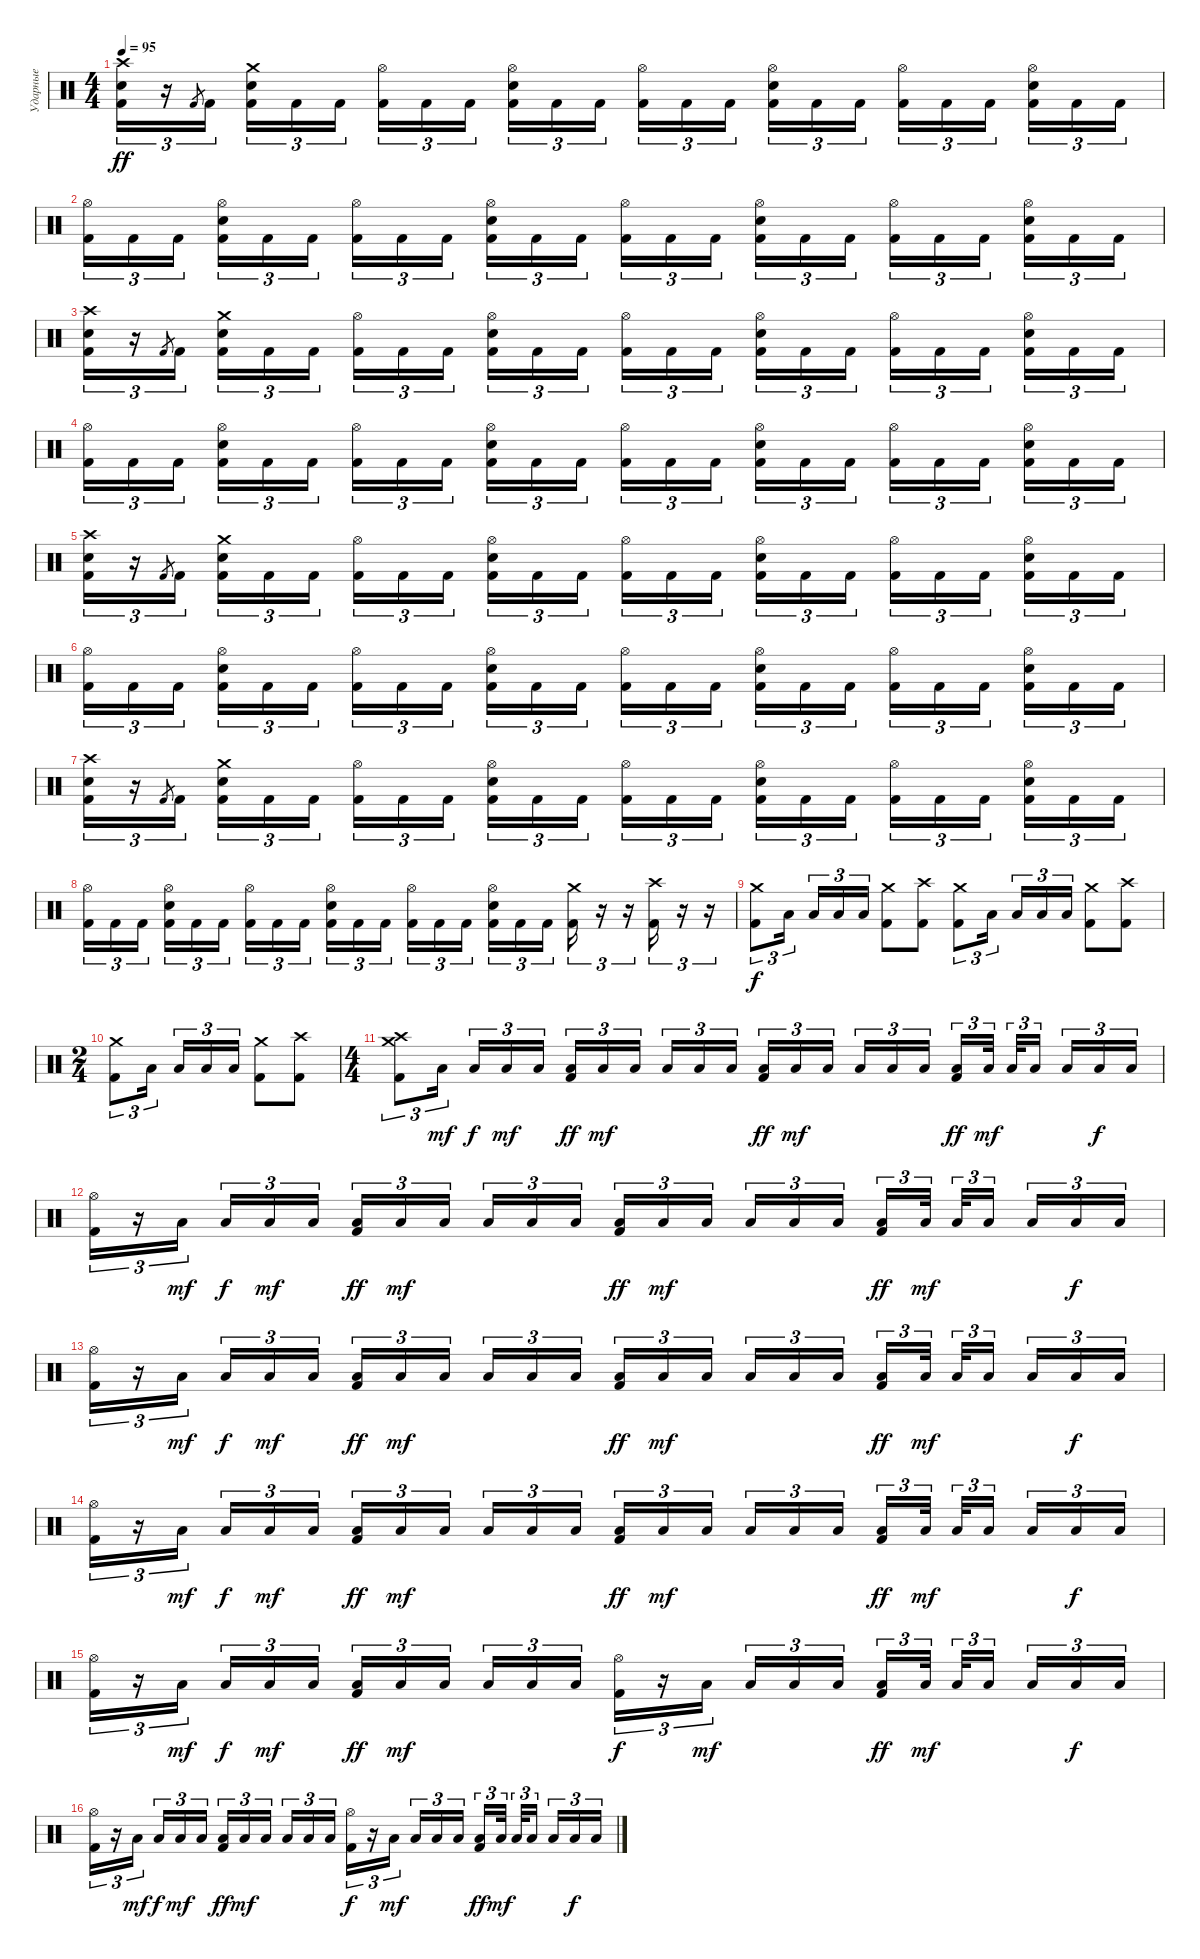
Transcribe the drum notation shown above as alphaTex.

\track ("Ударные" "Ударные") {instrument percussion}
\staff
\articulation defaults
\ts (4 4)
\tempo 95
\clef neutral
\ks c
("Crash high (hit)" "Electric Snare (hit)" "Kick (hit) 2").16{tu (3 2) dy ff} r.16{tu (3 2)} "Kick (hit) 2".8{gr} "Kick (hit) 2".16{tu (3 2) beam splitsecondary} ("Crash medium (hit)" "Electric Snare (hit)" "Kick (hit) 2").16{tu (3 2)} "Kick (hit) 2".16{tu (3 2)} "Kick (hit) 2".16{tu (3 2)} ("Hi-Hat (open)" "Kick (hit) 2").16{tu (3 2)} "Kick (hit) 2".16{tu (3 2)} "Kick (hit) 2".16{tu (3 2) beam splitsecondary} ("Hi-Hat (open)" "Electric Snare (hit)" "Kick (hit) 2").16{tu (3 2)} "Kick (hit) 2".16{tu (3 2)} "Kick (hit) 2".16{tu (3 2)} ("Hi-Hat (open)" "Kick (hit) 2").16{tu (3 2)} "Kick (hit) 2".16{tu (3 2)} "Kick (hit) 2".16{tu (3 2) beam splitsecondary} ("Hi-Hat (open)" "Electric Snare (hit)" "Kick (hit) 2").16{tu (3 2)} "Kick (hit) 2".16{tu (3 2)} "Kick (hit) 2".16{tu (3 2)} ("Hi-Hat (open)" "Kick (hit) 2").16{tu (3 2)} "Kick (hit) 2".16{tu (3 2)} "Kick (hit) 2".16{tu (3 2) beam splitsecondary} ("Hi-Hat (open)" "Electric Snare (hit)" "Kick (hit) 2").16{tu (3 2)} "Kick (hit) 2".16{tu (3 2)} "Kick (hit) 2".16{tu (3 2)} |
("Hi-Hat (open)" "Kick (hit) 2").16{tu (3 2)} "Kick (hit) 2".16{tu (3 2)} "Kick (hit) 2".16{tu (3 2) beam splitsecondary} ("Hi-Hat (open)" "Electric Snare (hit)" "Kick (hit) 2").16{tu (3 2)} "Kick (hit) 2".16{tu (3 2)} "Kick (hit) 2".16{tu (3 2)} ("Hi-Hat (open)" "Kick (hit) 2").16{tu (3 2)} "Kick (hit) 2".16{tu (3 2)} "Kick (hit) 2".16{tu (3 2) beam splitsecondary} ("Hi-Hat (open)" "Electric Snare (hit)" "Kick (hit) 2").16{tu (3 2)} "Kick (hit) 2".16{tu (3 2)} "Kick (hit) 2".16{tu (3 2)} ("Hi-Hat (open)" "Kick (hit) 2").16{tu (3 2)} "Kick (hit) 2".16{tu (3 2)} "Kick (hit) 2".16{tu (3 2) beam splitsecondary} ("Hi-Hat (open)" "Electric Snare (hit)" "Kick (hit) 2").16{tu (3 2)} "Kick (hit) 2".16{tu (3 2)} "Kick (hit) 2".16{tu (3 2)} ("Hi-Hat (open)" "Kick (hit) 2").16{tu (3 2)} "Kick (hit) 2".16{tu (3 2)} "Kick (hit) 2".16{tu (3 2) beam splitsecondary} ("Hi-Hat (open)" "Electric Snare (hit)" "Kick (hit) 2").16{tu (3 2)} "Kick (hit) 2".16{tu (3 2)} "Kick (hit) 2".16{tu (3 2)} |
("Crash high (hit)" "Electric Snare (hit)" "Kick (hit) 2").16{tu (3 2)} r.16{tu (3 2)} "Kick (hit) 2".8{gr} "Kick (hit) 2".16{tu (3 2) beam splitsecondary} ("Crash medium (hit)" "Electric Snare (hit)" "Kick (hit) 2").16{tu (3 2)} "Kick (hit) 2".16{tu (3 2)} "Kick (hit) 2".16{tu (3 2)} ("Hi-Hat (open)" "Kick (hit) 2").16{tu (3 2)} "Kick (hit) 2".16{tu (3 2)} "Kick (hit) 2".16{tu (3 2) beam splitsecondary} ("Hi-Hat (open)" "Electric Snare (hit)" "Kick (hit) 2").16{tu (3 2)} "Kick (hit) 2".16{tu (3 2)} "Kick (hit) 2".16{tu (3 2)} ("Hi-Hat (open)" "Kick (hit) 2").16{tu (3 2)} "Kick (hit) 2".16{tu (3 2)} "Kick (hit) 2".16{tu (3 2) beam splitsecondary} ("Hi-Hat (open)" "Electric Snare (hit)" "Kick (hit) 2").16{tu (3 2)} "Kick (hit) 2".16{tu (3 2)} "Kick (hit) 2".16{tu (3 2)} ("Hi-Hat (open)" "Kick (hit) 2").16{tu (3 2)} "Kick (hit) 2".16{tu (3 2)} "Kick (hit) 2".16{tu (3 2) beam splitsecondary} ("Hi-Hat (open)" "Electric Snare (hit)" "Kick (hit) 2").16{tu (3 2)} "Kick (hit) 2".16{tu (3 2)} "Kick (hit) 2".16{tu (3 2)} |
("Hi-Hat (open)" "Kick (hit) 2").16{tu (3 2)} "Kick (hit) 2".16{tu (3 2)} "Kick (hit) 2".16{tu (3 2) beam splitsecondary} ("Hi-Hat (open)" "Electric Snare (hit)" "Kick (hit) 2").16{tu (3 2)} "Kick (hit) 2".16{tu (3 2)} "Kick (hit) 2".16{tu (3 2)} ("Hi-Hat (open)" "Kick (hit) 2").16{tu (3 2)} "Kick (hit) 2".16{tu (3 2)} "Kick (hit) 2".16{tu (3 2) beam splitsecondary} ("Hi-Hat (open)" "Electric Snare (hit)" "Kick (hit) 2").16{tu (3 2)} "Kick (hit) 2".16{tu (3 2)} "Kick (hit) 2".16{tu (3 2)} ("Hi-Hat (open)" "Kick (hit) 2").16{tu (3 2)} "Kick (hit) 2".16{tu (3 2)} "Kick (hit) 2".16{tu (3 2) beam splitsecondary} ("Hi-Hat (open)" "Electric Snare (hit)" "Kick (hit) 2").16{tu (3 2)} "Kick (hit) 2".16{tu (3 2)} "Kick (hit) 2".16{tu (3 2)} ("Hi-Hat (open)" "Kick (hit) 2").16{tu (3 2)} "Kick (hit) 2".16{tu (3 2)} "Kick (hit) 2".16{tu (3 2) beam splitsecondary} ("Hi-Hat (open)" "Electric Snare (hit)" "Kick (hit) 2").16{tu (3 2)} "Kick (hit) 2".16{tu (3 2)} "Kick (hit) 2".16{tu (3 2)} |
("Crash high (hit)" "Electric Snare (hit)" "Kick (hit) 2").16{tu (3 2)} r.16{tu (3 2)} "Kick (hit) 2".8{gr} "Kick (hit) 2".16{tu (3 2) beam splitsecondary} ("Crash medium (hit)" "Electric Snare (hit)" "Kick (hit) 2").16{tu (3 2)} "Kick (hit) 2".16{tu (3 2)} "Kick (hit) 2".16{tu (3 2)} ("Hi-Hat (open)" "Kick (hit) 2").16{tu (3 2)} "Kick (hit) 2".16{tu (3 2)} "Kick (hit) 2".16{tu (3 2) beam splitsecondary} ("Hi-Hat (open)" "Electric Snare (hit)" "Kick (hit) 2").16{tu (3 2)} "Kick (hit) 2".16{tu (3 2)} "Kick (hit) 2".16{tu (3 2)} ("Hi-Hat (open)" "Kick (hit) 2").16{tu (3 2)} "Kick (hit) 2".16{tu (3 2)} "Kick (hit) 2".16{tu (3 2) beam splitsecondary} ("Hi-Hat (open)" "Electric Snare (hit)" "Kick (hit) 2").16{tu (3 2)} "Kick (hit) 2".16{tu (3 2)} "Kick (hit) 2".16{tu (3 2)} ("Hi-Hat (open)" "Kick (hit) 2").16{tu (3 2)} "Kick (hit) 2".16{tu (3 2)} "Kick (hit) 2".16{tu (3 2) beam splitsecondary} ("Hi-Hat (open)" "Electric Snare (hit)" "Kick (hit) 2").16{tu (3 2)} "Kick (hit) 2".16{tu (3 2)} "Kick (hit) 2".16{tu (3 2)} |
("Hi-Hat (open)" "Kick (hit) 2").16{tu (3 2)} "Kick (hit) 2".16{tu (3 2)} "Kick (hit) 2".16{tu (3 2) beam splitsecondary} ("Hi-Hat (open)" "Electric Snare (hit)" "Kick (hit) 2").16{tu (3 2)} "Kick (hit) 2".16{tu (3 2)} "Kick (hit) 2".16{tu (3 2)} ("Hi-Hat (open)" "Kick (hit) 2").16{tu (3 2)} "Kick (hit) 2".16{tu (3 2)} "Kick (hit) 2".16{tu (3 2) beam splitsecondary} ("Hi-Hat (open)" "Electric Snare (hit)" "Kick (hit) 2").16{tu (3 2)} "Kick (hit) 2".16{tu (3 2)} "Kick (hit) 2".16{tu (3 2)} ("Hi-Hat (open)" "Kick (hit) 2").16{tu (3 2)} "Kick (hit) 2".16{tu (3 2)} "Kick (hit) 2".16{tu (3 2) beam splitsecondary} ("Hi-Hat (open)" "Electric Snare (hit)" "Kick (hit) 2").16{tu (3 2)} "Kick (hit) 2".16{tu (3 2)} "Kick (hit) 2".16{tu (3 2)} ("Hi-Hat (open)" "Kick (hit) 2").16{tu (3 2)} "Kick (hit) 2".16{tu (3 2)} "Kick (hit) 2".16{tu (3 2) beam splitsecondary} ("Hi-Hat (open)" "Electric Snare (hit)" "Kick (hit) 2").16{tu (3 2)} "Kick (hit) 2".16{tu (3 2)} "Kick (hit) 2".16{tu (3 2)} |
("Crash high (hit)" "Electric Snare (hit)" "Kick (hit) 2").16{tu (3 2)} r.16{tu (3 2)} "Kick (hit) 2".8{gr} "Kick (hit) 2".16{tu (3 2) beam splitsecondary} ("Crash medium (hit)" "Electric Snare (hit)" "Kick (hit) 2").16{tu (3 2)} "Kick (hit) 2".16{tu (3 2)} "Kick (hit) 2".16{tu (3 2)} ("Hi-Hat (open)" "Kick (hit) 2").16{tu (3 2)} "Kick (hit) 2".16{tu (3 2)} "Kick (hit) 2".16{tu (3 2) beam splitsecondary} ("Hi-Hat (open)" "Electric Snare (hit)" "Kick (hit) 2").16{tu (3 2)} "Kick (hit) 2".16{tu (3 2)} "Kick (hit) 2".16{tu (3 2)} ("Hi-Hat (open)" "Kick (hit) 2").16{tu (3 2)} "Kick (hit) 2".16{tu (3 2)} "Kick (hit) 2".16{tu (3 2) beam splitsecondary} ("Hi-Hat (open)" "Electric Snare (hit)" "Kick (hit) 2").16{tu (3 2)} "Kick (hit) 2".16{tu (3 2)} "Kick (hit) 2".16{tu (3 2)} ("Hi-Hat (open)" "Kick (hit) 2").16{tu (3 2)} "Kick (hit) 2".16{tu (3 2)} "Kick (hit) 2".16{tu (3 2) beam splitsecondary} ("Hi-Hat (open)" "Electric Snare (hit)" "Kick (hit) 2").16{tu (3 2)} "Kick (hit) 2".16{tu (3 2)} "Kick (hit) 2".16{tu (3 2)} |
("Hi-Hat (open)" "Kick (hit) 2").16{tu (3 2)} "Kick (hit) 2".16{tu (3 2)} "Kick (hit) 2".16{tu (3 2) beam splitsecondary} ("Hi-Hat (open)" "Electric Snare (hit)" "Kick (hit) 2").16{tu (3 2)} "Kick (hit) 2".16{tu (3 2)} "Kick (hit) 2".16{tu (3 2)} ("Hi-Hat (open)" "Kick (hit) 2").16{tu (3 2)} "Kick (hit) 2".16{tu (3 2)} "Kick (hit) 2".16{tu (3 2) beam splitsecondary} ("Hi-Hat (open)" "Electric Snare (hit)" "Kick (hit) 2").16{tu (3 2)} "Kick (hit) 2".16{tu (3 2)} "Kick (hit) 2".16{tu (3 2)} ("Hi-Hat (open)" "Kick (hit) 2").16{tu (3 2)} "Kick (hit) 2".16{tu (3 2)} "Kick (hit) 2".16{tu (3 2) beam splitsecondary} ("Hi-Hat (open)" "Electric Snare (hit)" "Kick (hit) 2").16{tu (3 2)} "Kick (hit) 2".16{tu (3 2)} "Kick (hit) 2".16{tu (3 2)} ("Crash medium (hit)" "Kick (hit) 2").16{tu (3 2)} r.16{tu (3 2)} r.16{tu (3 2)} ("Crash high (hit)" "Kick (hit) 2").16{tu (3 2)} r.16{tu (3 2)} r.16{tu (3 2)} |
("Crash medium (hit)" "Kick (hit) 2").8{tu (3 2) dy f} "Low Tom (hit)".16{tu (3 2) beam splitsecondary} "Low Tom (hit)".16{tu (3 2)} "Low Tom (hit)".16{tu (3 2)} "Low Tom (hit)".16{tu (3 2)} ("Crash medium (hit)" "Kick (hit) 2").8 ("Crash high (hit)" "Kick (hit) 2").8 ("Crash medium (hit)" "Kick (hit) 2").8{tu (3 2)} "Low Tom (hit)".16{tu (3 2) beam splitsecondary} "Low Tom (hit)".16{tu (3 2)} "Low Tom (hit)".16{tu (3 2)} "Low Tom (hit)".16{tu (3 2)} ("Crash medium (hit)" "Kick (hit) 2").8 ("Crash high (hit)" "Kick (hit) 2").8 |
\ts (2 4)
("Crash medium (hit)" "Kick (hit) 2").8{tu (3 2)} "Low Tom (hit)".16{tu (3 2) beam splitsecondary} "Low Tom (hit)".16{tu (3 2)} "Low Tom (hit)".16{tu (3 2)} "Low Tom (hit)".16{tu (3 2)} ("Crash medium (hit)" "Kick (hit) 2").8 ("Crash high (hit)" "Kick (hit) 2").8 |
\ts (4 4)
("Crash medium (hit)" "Crash high (hit)" "Kick (hit) 2").8{tu (3 2)} "Low Floor Tom (hit)".16{tu (3 2) dy mf beam splitsecondary} "Low Floor Tom (hit)".16{tu (3 2) dy f} "Low Floor Tom (hit)".16{tu (3 2) dy mf} "Low Floor Tom (hit)".16{tu (3 2)} ("Kick (hit) 2" "Low Floor Tom (hit)").16{tu (3 2) dy ff} "Low Floor Tom (hit)".16{tu (3 2) dy mf} "Low Floor Tom (hit)".16{tu (3 2) beam splitsecondary} "Low Floor Tom (hit)".16{tu (3 2)} "Low Floor Tom (hit)".16{tu (3 2)} "Low Floor Tom (hit)".16{tu (3 2)} ("Kick (hit) 2" "Low Floor Tom (hit)").16{tu (3 2) dy ff} "Low Floor Tom (hit)".16{tu (3 2) dy mf} "Low Floor Tom (hit)".16{tu (3 2) beam splitsecondary} "Low Floor Tom (hit)".16{tu (3 2)} "Low Floor Tom (hit)".16{tu (3 2)} "Low Floor Tom (hit)".16{tu (3 2)} ("Kick (hit) 2" "Low Floor Tom (hit)").16{tu (3 2) dy ff} "Low Floor Tom (hit)".32{tu (3 2) dy mf beam splitsecondary} "Low Floor Tom (hit)".32{tu (3 2)} "Low Floor Tom (hit)".16{tu (3 2) beam splitsecondary} "Low Floor Tom (hit)".16{tu (3 2)} "Low Floor Tom (hit)".16{tu (3 2) dy f} "Low Floor Tom (hit)".16{tu (3 2)} |
("Hi-Hat (open)" "Kick (hit) 2").16{tu (3 2)} r.16{tu (3 2)} "Low Floor Tom (hit)".16{tu (3 2) dy mf beam splitsecondary} "Low Floor Tom (hit)".16{tu (3 2) dy f} "Low Floor Tom (hit)".16{tu (3 2) dy mf} "Low Floor Tom (hit)".16{tu (3 2)} ("Kick (hit) 2" "Low Floor Tom (hit)").16{tu (3 2) dy ff} "Low Floor Tom (hit)".16{tu (3 2) dy mf} "Low Floor Tom (hit)".16{tu (3 2) beam splitsecondary} "Low Floor Tom (hit)".16{tu (3 2)} "Low Floor Tom (hit)".16{tu (3 2)} "Low Floor Tom (hit)".16{tu (3 2)} ("Kick (hit) 2" "Low Floor Tom (hit)").16{tu (3 2) dy ff} "Low Floor Tom (hit)".16{tu (3 2) dy mf} "Low Floor Tom (hit)".16{tu (3 2) beam splitsecondary} "Low Floor Tom (hit)".16{tu (3 2)} "Low Floor Tom (hit)".16{tu (3 2)} "Low Floor Tom (hit)".16{tu (3 2)} ("Kick (hit) 2" "Low Floor Tom (hit)").16{tu (3 2) dy ff} "Low Floor Tom (hit)".32{tu (3 2) dy mf beam splitsecondary} "Low Floor Tom (hit)".32{tu (3 2)} "Low Floor Tom (hit)".16{tu (3 2) beam splitsecondary} "Low Floor Tom (hit)".16{tu (3 2)} "Low Floor Tom (hit)".16{tu (3 2) dy f} "Low Floor Tom (hit)".16{tu (3 2)} |
("Hi-Hat (open)" "Kick (hit) 2").16{tu (3 2)} r.16{tu (3 2)} "Low Floor Tom (hit)".16{tu (3 2) dy mf beam splitsecondary} "Low Floor Tom (hit)".16{tu (3 2) dy f} "Low Floor Tom (hit)".16{tu (3 2) dy mf} "Low Floor Tom (hit)".16{tu (3 2)} ("Kick (hit) 2" "Low Floor Tom (hit)").16{tu (3 2) dy ff} "Low Floor Tom (hit)".16{tu (3 2) dy mf} "Low Floor Tom (hit)".16{tu (3 2) beam splitsecondary} "Low Floor Tom (hit)".16{tu (3 2)} "Low Floor Tom (hit)".16{tu (3 2)} "Low Floor Tom (hit)".16{tu (3 2)} ("Kick (hit) 2" "Low Floor Tom (hit)").16{tu (3 2) dy ff} "Low Floor Tom (hit)".16{tu (3 2) dy mf} "Low Floor Tom (hit)".16{tu (3 2) beam splitsecondary} "Low Floor Tom (hit)".16{tu (3 2)} "Low Floor Tom (hit)".16{tu (3 2)} "Low Floor Tom (hit)".16{tu (3 2)} ("Kick (hit) 2" "Low Floor Tom (hit)").16{tu (3 2) dy ff} "Low Floor Tom (hit)".32{tu (3 2) dy mf beam splitsecondary} "Low Floor Tom (hit)".32{tu (3 2)} "Low Floor Tom (hit)".16{tu (3 2) beam splitsecondary} "Low Floor Tom (hit)".16{tu (3 2)} "Low Floor Tom (hit)".16{tu (3 2) dy f} "Low Floor Tom (hit)".16{tu (3 2)} |
("Hi-Hat (open)" "Kick (hit) 2").16{tu (3 2)} r.16{tu (3 2)} "Low Floor Tom (hit)".16{tu (3 2) dy mf beam splitsecondary} "Low Floor Tom (hit)".16{tu (3 2) dy f} "Low Floor Tom (hit)".16{tu (3 2) dy mf} "Low Floor Tom (hit)".16{tu (3 2)} ("Kick (hit) 2" "Low Floor Tom (hit)").16{tu (3 2) dy ff} "Low Floor Tom (hit)".16{tu (3 2) dy mf} "Low Floor Tom (hit)".16{tu (3 2) beam splitsecondary} "Low Floor Tom (hit)".16{tu (3 2)} "Low Floor Tom (hit)".16{tu (3 2)} "Low Floor Tom (hit)".16{tu (3 2)} ("Kick (hit) 2" "Low Floor Tom (hit)").16{tu (3 2) dy ff} "Low Floor Tom (hit)".16{tu (3 2) dy mf} "Low Floor Tom (hit)".16{tu (3 2) beam splitsecondary} "Low Floor Tom (hit)".16{tu (3 2)} "Low Floor Tom (hit)".16{tu (3 2)} "Low Floor Tom (hit)".16{tu (3 2)} ("Kick (hit) 2" "Low Floor Tom (hit)").16{tu (3 2) dy ff} "Low Floor Tom (hit)".32{tu (3 2) dy mf beam splitsecondary} "Low Floor Tom (hit)".32{tu (3 2)} "Low Floor Tom (hit)".16{tu (3 2) beam splitsecondary} "Low Floor Tom (hit)".16{tu (3 2)} "Low Floor Tom (hit)".16{tu (3 2) dy f} "Low Floor Tom (hit)".16{tu (3 2)} |
("Hi-Hat (open)" "Kick (hit) 2").16{tu (3 2)} r.16{tu (3 2)} "Low Floor Tom (hit)".16{tu (3 2) dy mf beam splitsecondary} "Low Floor Tom (hit)".16{tu (3 2) dy f} "Low Floor Tom (hit)".16{tu (3 2) dy mf} "Low Floor Tom (hit)".16{tu (3 2)} ("Kick (hit) 2" "Low Floor Tom (hit)").16{tu (3 2) dy ff} "Low Floor Tom (hit)".16{tu (3 2) dy mf} "Low Floor Tom (hit)".16{tu (3 2) beam splitsecondary} "Low Floor Tom (hit)".16{tu (3 2)} "Low Floor Tom (hit)".16{tu (3 2)} "Low Floor Tom (hit)".16{tu (3 2)} ("Hi-Hat (open)" "Kick (hit) 2").16{tu (3 2) dy f} r.16{tu (3 2)} "Low Floor Tom (hit)".16{tu (3 2) dy mf beam splitsecondary} "Low Floor Tom (hit)".16{tu (3 2)} "Low Floor Tom (hit)".16{tu (3 2)} "Low Floor Tom (hit)".16{tu (3 2)} ("Kick (hit) 2" "Low Floor Tom (hit)").16{tu (3 2) dy ff} "Low Floor Tom (hit)".32{tu (3 2) dy mf beam splitsecondary} "Low Floor Tom (hit)".32{tu (3 2)} "Low Floor Tom (hit)".16{tu (3 2) beam splitsecondary} "Low Floor Tom (hit)".16{tu (3 2)} "Low Floor Tom (hit)".16{tu (3 2) dy f} "Low Floor Tom (hit)".16{tu (3 2)} |
("Hi-Hat (open)" "Kick (hit) 2").16{tu (3 2)} r.16{tu (3 2)} "Low Floor Tom (hit)".16{tu (3 2) dy mf beam splitsecondary} "Low Floor Tom (hit)".16{tu (3 2) dy f} "Low Floor Tom (hit)".16{tu (3 2) dy mf} "Low Floor Tom (hit)".16{tu (3 2)} ("Kick (hit) 2" "Low Floor Tom (hit)").16{tu (3 2) dy ff} "Low Floor Tom (hit)".16{tu (3 2) dy mf} "Low Floor Tom (hit)".16{tu (3 2) beam splitsecondary} "Low Floor Tom (hit)".16{tu (3 2)} "Low Floor Tom (hit)".16{tu (3 2)} "Low Floor Tom (hit)".16{tu (3 2)} ("Hi-Hat (open)" "Kick (hit) 2").16{tu (3 2) dy f} r.16{tu (3 2)} "Low Floor Tom (hit)".16{tu (3 2) dy mf beam splitsecondary} "Low Floor Tom (hit)".16{tu (3 2)} "Low Floor Tom (hit)".16{tu (3 2)} "Low Floor Tom (hit)".16{tu (3 2)} ("Kick (hit) 2" "Low Floor Tom (hit)").16{tu (3 2) dy ff} "Low Floor Tom (hit)".32{tu (3 2) dy mf beam splitsecondary} "Low Floor Tom (hit)".32{tu (3 2)} "Low Floor Tom (hit)".16{tu (3 2) beam splitsecondary} "Low Floor Tom (hit)".16{tu (3 2)} "Low Floor Tom (hit)".16{tu (3 2) dy f} "Low Floor Tom (hit)".16{tu (3 2)}
